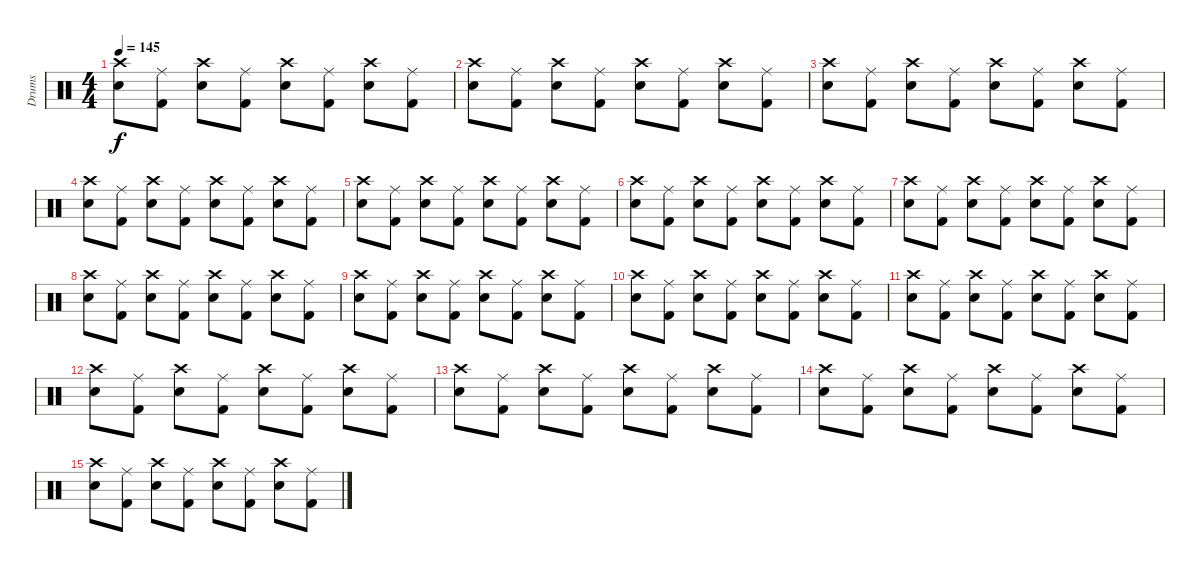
\track ("Drums" "Drums") {instrument percussion}
\staff {score}
\articulation defaults
\ts (4 4)
\tempo 145
\clef neutral
\ks c
("Crash high (hit)" "Electric Snare (hit)").8{dy f} ("Ride (middle)" "Kick (hit) 2").8 ("Crash high (hit)" "Electric Snare (hit)").8 ("Ride (middle)" "Kick (hit) 2").8 ("Crash high (hit)" "Electric Snare (hit)").8 ("Ride (middle)" "Kick (hit) 2").8 ("Crash high (hit)" "Electric Snare (hit)").8 ("Ride (middle)" "Kick (hit) 2").8 |
("Crash high (hit)" "Electric Snare (hit)").8 ("Ride (middle)" "Kick (hit) 2").8 ("Crash high (hit)" "Electric Snare (hit)").8 ("Ride (middle)" "Kick (hit) 2").8 ("Crash high (hit)" "Electric Snare (hit)").8 ("Ride (middle)" "Kick (hit) 2").8 ("Crash high (hit)" "Electric Snare (hit)").8 ("Ride (middle)" "Kick (hit) 2").8 |
("Crash high (hit)" "Electric Snare (hit)").8 ("Ride (middle)" "Kick (hit) 2").8 ("Crash high (hit)" "Electric Snare (hit)").8 ("Ride (middle)" "Kick (hit) 2").8 ("Crash high (hit)" "Electric Snare (hit)").8 ("Ride (middle)" "Kick (hit) 2").8 ("Crash high (hit)" "Electric Snare (hit)").8 ("Ride (middle)" "Kick (hit) 2").8 |
("Crash high (hit)" "Electric Snare (hit)").8{volume 14} ("Ride (middle)" "Kick (hit) 2").8 ("Crash high (hit)" "Electric Snare (hit)").8 ("Ride (middle)" "Kick (hit) 2").8 ("Crash high (hit)" "Electric Snare (hit)").8 ("Ride (middle)" "Kick (hit) 2").8 ("Crash high (hit)" "Electric Snare (hit)").8 ("Ride (middle)" "Kick (hit) 2").8 |
("Crash high (hit)" "Electric Snare (hit)").8 ("Ride (middle)" "Kick (hit) 2").8 ("Crash high (hit)" "Electric Snare (hit)").8 ("Ride (middle)" "Kick (hit) 2").8 ("Crash high (hit)" "Electric Snare (hit)").8 ("Ride (middle)" "Kick (hit) 2").8 ("Crash high (hit)" "Electric Snare (hit)").8 ("Ride (middle)" "Kick (hit) 2").8 |
("Crash high (hit)" "Electric Snare (hit)").8{volume 12} ("Ride (middle)" "Kick (hit) 2").8 ("Crash high (hit)" "Electric Snare (hit)").8 ("Ride (middle)" "Kick (hit) 2").8 ("Crash high (hit)" "Electric Snare (hit)").8 ("Ride (middle)" "Kick (hit) 2").8 ("Crash high (hit)" "Electric Snare (hit)").8 ("Ride (middle)" "Kick (hit) 2").8 |
("Crash high (hit)" "Electric Snare (hit)").8 ("Ride (middle)" "Kick (hit) 2").8 ("Crash high (hit)" "Electric Snare (hit)").8 ("Ride (middle)" "Kick (hit) 2").8 ("Crash high (hit)" "Electric Snare (hit)").8 ("Ride (middle)" "Kick (hit) 2").8 ("Crash high (hit)" "Electric Snare (hit)").8 ("Ride (middle)" "Kick (hit) 2").8 |
("Crash high (hit)" "Electric Snare (hit)").8{volume 10} ("Ride (middle)" "Kick (hit) 2").8 ("Crash high (hit)" "Electric Snare (hit)").8 ("Ride (middle)" "Kick (hit) 2").8 ("Crash high (hit)" "Electric Snare (hit)").8 ("Ride (middle)" "Kick (hit) 2").8 ("Crash high (hit)" "Electric Snare (hit)").8 ("Ride (middle)" "Kick (hit) 2").8 |
("Crash high (hit)" "Electric Snare (hit)").8 ("Ride (middle)" "Kick (hit) 2").8 ("Crash high (hit)" "Electric Snare (hit)").8 ("Ride (middle)" "Kick (hit) 2").8 ("Crash high (hit)" "Electric Snare (hit)").8 ("Ride (middle)" "Kick (hit) 2").8 ("Crash high (hit)" "Electric Snare (hit)").8 ("Ride (middle)" "Kick (hit) 2").8 |
("Crash high (hit)" "Electric Snare (hit)").8{volume 8} ("Ride (middle)" "Kick (hit) 2").8 ("Crash high (hit)" "Electric Snare (hit)").8 ("Ride (middle)" "Kick (hit) 2").8 ("Crash high (hit)" "Electric Snare (hit)").8 ("Ride (middle)" "Kick (hit) 2").8 ("Crash high (hit)" "Electric Snare (hit)").8 ("Ride (middle)" "Kick (hit) 2").8 |
("Crash high (hit)" "Electric Snare (hit)").8 ("Ride (middle)" "Kick (hit) 2").8 ("Crash high (hit)" "Electric Snare (hit)").8 ("Ride (middle)" "Kick (hit) 2").8 ("Crash high (hit)" "Electric Snare (hit)").8 ("Ride (middle)" "Kick (hit) 2").8 ("Crash high (hit)" "Electric Snare (hit)").8 ("Ride (middle)" "Kick (hit) 2").8 |
("Crash high (hit)" "Electric Snare (hit)").8{volume 6} ("Ride (middle)" "Kick (hit) 2").8 ("Crash high (hit)" "Electric Snare (hit)").8 ("Ride (middle)" "Kick (hit) 2").8 ("Crash high (hit)" "Electric Snare (hit)").8 ("Ride (middle)" "Kick (hit) 2").8 ("Crash high (hit)" "Electric Snare (hit)").8 ("Ride (middle)" "Kick (hit) 2").8 |
("Crash high (hit)" "Electric Snare (hit)").8 ("Ride (middle)" "Kick (hit) 2").8 ("Crash high (hit)" "Electric Snare (hit)").8 ("Ride (middle)" "Kick (hit) 2").8 ("Crash high (hit)" "Electric Snare (hit)").8 ("Ride (middle)" "Kick (hit) 2").8 ("Crash high (hit)" "Electric Snare (hit)").8 ("Ride (middle)" "Kick (hit) 2").8 |
("Crash high (hit)" "Electric Snare (hit)").8{volume 0} ("Ride (middle)" "Kick (hit) 2").8 ("Crash high (hit)" "Electric Snare (hit)").8 ("Ride (middle)" "Kick (hit) 2").8 ("Crash high (hit)" "Electric Snare (hit)").8 ("Ride (middle)" "Kick (hit) 2").8 ("Crash high (hit)" "Electric Snare (hit)").8 ("Ride (middle)" "Kick (hit) 2").8 |
("Crash high (hit)" "Electric Snare (hit)").8 ("Ride (middle)" "Kick (hit) 2").8 ("Crash high (hit)" "Electric Snare (hit)").8 ("Ride (middle)" "Kick (hit) 2").8 ("Crash high (hit)" "Electric Snare (hit)").8 ("Ride (middle)" "Kick (hit) 2").8 ("Crash high (hit)" "Electric Snare (hit)").8 ("Ride (middle)" "Kick (hit) 2").8
